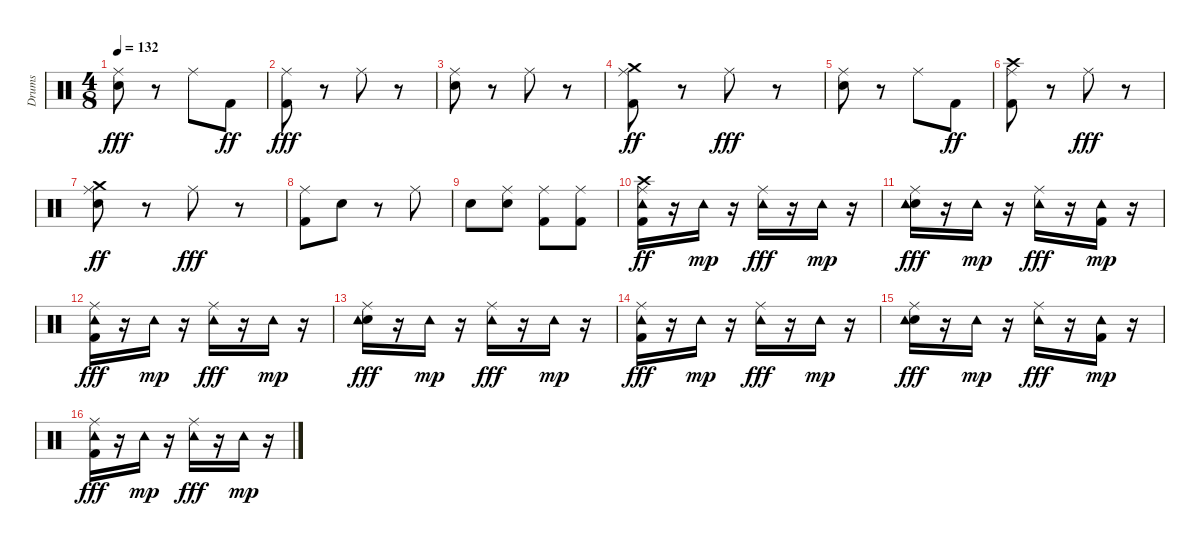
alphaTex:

\track ("Drums" "Drums") {instrument percussion}
\staff {score}
\articulation defaults
\ts (4 8)
\tempo 132
\clef neutral
\ks c
("Snare (hit) 2" "Ride (middle)").8{dy fff} r.8 "Ride (middle)".8 "Kick (hit) 2".8{dy ff} |
("Kick (hit) 2" "Ride (middle)").8{dy fff} r.8 "Ride (middle)".8 r.8 |
("Snare (hit) 2" "Ride (middle)").8 r.8 "Ride (middle)".8 r.8 |
("Kick (hit) 2" "Ride (middle)" "Crash medium (hit)").8{dy ff} r.8 "Ride (middle)".8{dy fff} r.8 |
("Snare (hit) 2" "Ride (middle)").8 r.8 "Ride (middle)".8 "Kick (hit) 2".8{dy ff} |
("Kick (hit) 2" "Ride (middle)" "Crash high (hit)").8 r.8 "Ride (middle)".8{dy fff} r.8 |
("Snare (hit) 2" "Ride (middle)" "Crash medium (hit)").8{dy ff} r.8 "Ride (middle)".8{dy fff} r.8 |
("Kick (hit) 2" "Ride (middle)").8 "Snare (hit) 2".8 r.8 "Ride (middle)".8 |
"Snare (hit) 2".8 ("Snare (hit) 2" "Ride (middle)").8 ("Kick (hit) 2" "Ride (middle)").8 ("Kick (hit) 2" "Ride (middle)").8 |
("Kick (hit) 2" "Ride (middle)" "Tambourine (hit)" "Crash high (hit)").16{dy ff} r.16 "Tambourine (hit)".16{dy mp} r.16 ("Ride (middle)" "Tambourine (hit)").16{dy fff} r.16 "Tambourine (hit)".16{dy mp} r.16 |
("Snare (hit) 2" "Ride (middle)" "Tambourine (hit)").16{dy fff} r.16 "Tambourine (hit)".16{dy mp} r.16 ("Ride (middle)" "Tambourine (hit)").16{dy fff} r.16 ("Kick (hit) 2" "Tambourine (hit)").16{dy mp} r.16 |
("Kick (hit) 2" "Ride (middle)" "Tambourine (hit)").16{dy fff} r.16 "Tambourine (hit)".16{dy mp} r.16 ("Ride (middle)" "Tambourine (hit)").16{dy fff} r.16 "Tambourine (hit)".16{dy mp} r.16 |
("Snare (hit) 2" "Ride (middle)" "Tambourine (hit)").16{dy fff} r.16 "Tambourine (hit)".16{dy mp} r.16 ("Ride (middle)" "Tambourine (hit)").16{dy fff} r.16 "Tambourine (hit)".16{dy mp} r.16 |
("Kick (hit) 2" "Ride (middle)" "Tambourine (hit)").16{dy fff} r.16 "Tambourine (hit)".16{dy mp} r.16 ("Ride (middle)" "Tambourine (hit)").16{dy fff} r.16 "Tambourine (hit)".16{dy mp} r.16 |
("Snare (hit) 2" "Ride (middle)" "Tambourine (hit)").16{dy fff} r.16 "Tambourine (hit)".16{dy mp} r.16 ("Ride (middle)" "Tambourine (hit)").16{dy fff} r.16 ("Kick (hit) 2" "Tambourine (hit)").16{dy mp} r.16 |
("Kick (hit) 2" "Ride (middle)" "Tambourine (hit)").16{dy fff} r.16 "Tambourine (hit)".16{dy mp} r.16 ("Ride (middle)" "Tambourine (hit)").16{dy fff} r.16 "Tambourine (hit)".16{dy mp} r.16
